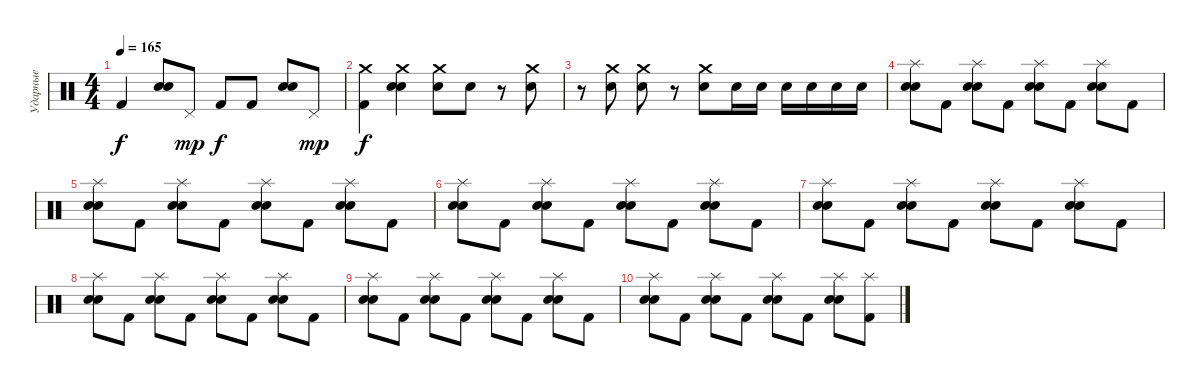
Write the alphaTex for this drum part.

\track ("Ударные" "Ударные") {instrument percussion}
\staff {score}
\articulation defaults
\ts (4 4)
\tempo 165
\clef neutral
\ks c "Kick (hit) 2".4{dy f}
("Electric Snare (hit)" "Snare (hit) 2").8 "Pedal Hi-Hat (hit)".8{dy mp} "Kick (hit) 2".8{dy f} "Kick (hit) 2".8 ("Electric Snare (hit)" "Snare (hit) 2").8 "Pedal Hi-Hat (hit)".8{dy mp} |
("Crash medium (hit)" "Kick (hit) 2").4{dy f} ("Crash medium (hit)" "Electric Snare (hit)" "Snare (hit) 2").4 ("Crash medium (hit)" "Electric Snare (hit)").8 "Electric Snare (hit)".8 r.8 ("Crash medium (hit)" "Electric Snare (hit)").8 |
r.8 ("Crash medium (hit)" "Electric Snare (hit)").8 ("Crash medium (hit)" "Electric Snare (hit)").8 r.8 ("Crash medium (hit)" "Electric Snare (hit)").8 "Electric Snare (hit)".16 "Electric Snare (hit)".16 "Electric Snare (hit)".16 "Electric Snare (hit)".16 "Electric Snare (hit)".16 "Electric Snare (hit)".16 |
("Splash (hit)" "Electric Snare (hit)" "Snare (hit) 2").8 "Kick (hit) 2".8 ("Splash (hit)" "Electric Snare (hit)" "Snare (hit) 2").8 "Kick (hit) 2".8 ("Splash (hit)" "Electric Snare (hit)" "Snare (hit) 2").8 "Kick (hit) 2".8 ("Splash (hit)" "Electric Snare (hit)" "Snare (hit) 2").8 "Kick (hit) 2".8 |
("Splash (hit)" "Electric Snare (hit)" "Snare (hit) 2").8 "Kick (hit) 2".8 ("Splash (hit)" "Electric Snare (hit)" "Snare (hit) 2").8 "Kick (hit) 2".8 ("Splash (hit)" "Electric Snare (hit)" "Snare (hit) 2").8 "Kick (hit) 2".8 ("Splash (hit)" "Electric Snare (hit)" "Snare (hit) 2").8 "Kick (hit) 2".8 |
("Splash (hit)" "Electric Snare (hit)" "Snare (hit) 2").8 "Kick (hit) 2".8 ("Splash (hit)" "Electric Snare (hit)" "Snare (hit) 2").8 "Kick (hit) 2".8 ("Splash (hit)" "Electric Snare (hit)" "Snare (hit) 2").8 "Kick (hit) 2".8 ("Splash (hit)" "Electric Snare (hit)" "Snare (hit) 2").8 "Kick (hit) 2".8 |
("Splash (hit)" "Electric Snare (hit)" "Snare (hit) 2").8 "Kick (hit) 2".8 ("Splash (hit)" "Electric Snare (hit)" "Snare (hit) 2").8 "Kick (hit) 2".8 ("Splash (hit)" "Electric Snare (hit)" "Snare (hit) 2").8 "Kick (hit) 2".8 ("Splash (hit)" "Electric Snare (hit)" "Snare (hit) 2").8 "Kick (hit) 2".8 |
("Splash (hit)" "Electric Snare (hit)" "Snare (hit) 2").8 "Kick (hit) 2".8 ("Splash (hit)" "Electric Snare (hit)" "Snare (hit) 2").8 "Kick (hit) 2".8 ("Splash (hit)" "Electric Snare (hit)" "Snare (hit) 2").8 "Kick (hit) 2".8 ("Splash (hit)" "Electric Snare (hit)" "Snare (hit) 2").8 "Kick (hit) 2".8 |
("Splash (hit)" "Electric Snare (hit)" "Snare (hit) 2").8 "Kick (hit) 2".8 ("Splash (hit)" "Electric Snare (hit)" "Snare (hit) 2").8 "Kick (hit) 2".8 ("Splash (hit)" "Electric Snare (hit)" "Snare (hit) 2").8 "Kick (hit) 2".8 ("Splash (hit)" "Electric Snare (hit)" "Snare (hit) 2").8 "Kick (hit) 2".8 |
("Splash (hit)" "Electric Snare (hit)" "Snare (hit) 2").8 "Kick (hit) 2".8 ("Splash (hit)" "Electric Snare (hit)" "Snare (hit) 2").8 "Kick (hit) 2".8 ("Splash (hit)" "Electric Snare (hit)" "Snare (hit) 2").8 "Kick (hit) 2".8 ("Splash (hit)" "Electric Snare (hit)" "Snare (hit) 2").8 ("Splash (hit)" "Kick (hit) 2").8
